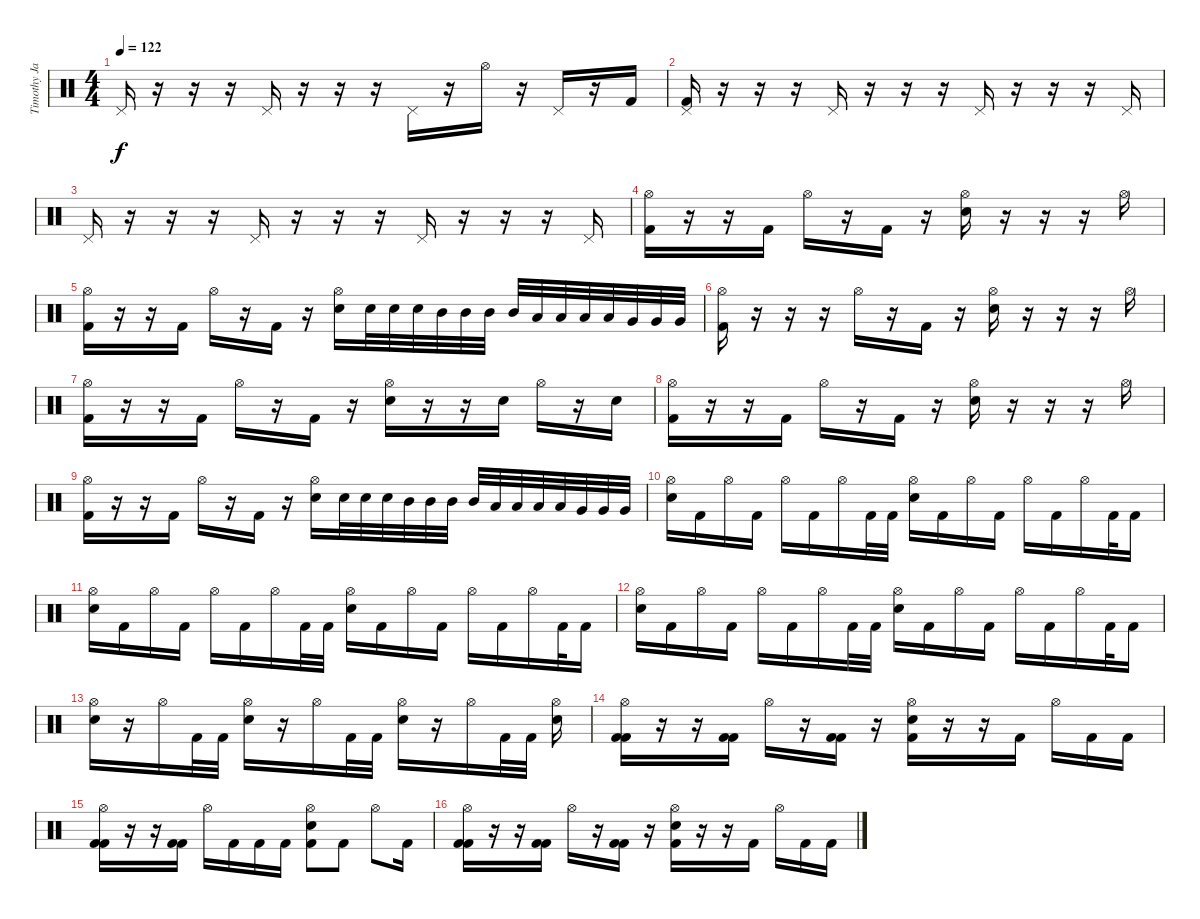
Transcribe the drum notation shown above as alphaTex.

\track ("Timothy Java" "Timothy Ja") {instrument percussion}
\staff {score}
\articulation defaults
\ts (4 4)
\tempo 122
\clef neutral
\ks c "Pedal Hi-Hat (hit)".16{dy f}
r.16 r.16 r.16 "Pedal Hi-Hat (hit)".16 r.16 r.16 r.16 "Pedal Hi-Hat (hit)".16 r.16 "Hi-Hat (open)".16 r.16 "Pedal Hi-Hat (hit)".16 r.16 "Kick (hit) 2".16 |
("Pedal Hi-Hat (hit)" "Kick (hit) 2").16 r.16 r.16 r.16 "Pedal Hi-Hat (hit)".16 r.16 r.16 r.16 "Pedal Hi-Hat (hit)".16 r.16 r.16 r.16 "Pedal Hi-Hat (hit)".16 |
"Pedal Hi-Hat (hit)".16 r.16 r.16 r.16 "Pedal Hi-Hat (hit)".16 r.16 r.16 r.16 "Pedal Hi-Hat (hit)".16 r.16 r.16 r.16 "Pedal Hi-Hat (hit)".16 |
("Hi-Hat (open)" "Kick (hit) 2").16 r.16 r.16 "Kick (hit) 2".16 "Hi-Hat (open)".16 r.16 "Kick (hit) 2".16 r.16 ("Hi-Hat (open)" "Electric Snare (hit)").16 r.16 r.16 r.16 "Hi-Hat (open)".16 |
("Hi-Hat (open)" "Kick (hit) 2").16 r.16 r.16 "Kick (hit) 2".16 "Hi-Hat (open)".16 r.16 "Kick (hit) 2".16 r.16 ("Hi-Hat (open)" "Electric Snare (hit)").16 "Electric Snare (hit)".32 "Electric Snare (hit)".32 "Electric Snare (hit)".32 "Mid Tom (hit)".32 "Mid Tom (hit)".32 "Mid Tom (hit)".32 "Mid Tom (hit)".32 "Low Tom (hit)".32 "Low Tom (hit)".32 "Low Tom (hit)".32 "Low Tom (hit)".32 "Very Low Tom (hit)".32 "Very Low Tom (hit)".32 "Very Low Tom (hit)".32 |
("Hi-Hat (open)" "Kick (hit) 2").16 r.16 r.16 r.16 "Hi-Hat (open)".16 r.16 "Kick (hit) 2".16 r.16 ("Hi-Hat (open)" "Electric Snare (hit)").16 r.16 r.16 r.16 "Hi-Hat (open)".16 |
("Hi-Hat (open)" "Kick (hit) 2").16 r.16 r.16 "Kick (hit) 2".16 "Hi-Hat (open)".16 r.16 "Kick (hit) 2".16 r.16 ("Hi-Hat (open)" "Electric Snare (hit)").16 r.16 r.16 "Electric Snare (hit)".16 "Hi-Hat (open)".16 r.16 "Electric Snare (hit)".16 |
("Hi-Hat (open)" "Kick (hit) 2").16 r.16 r.16 "Kick (hit) 2".16 "Hi-Hat (open)".16 r.16 "Kick (hit) 2".16 r.16 ("Hi-Hat (open)" "Electric Snare (hit)").16 r.16 r.16 r.16 "Hi-Hat (open)".16 |
("Hi-Hat (open)" "Kick (hit) 2").16 r.16 r.16 "Kick (hit) 2".16 "Hi-Hat (open)".16 r.16 "Kick (hit) 2".16 r.16 ("Hi-Hat (open)" "Electric Snare (hit)").16 "Electric Snare (hit)".32 "Electric Snare (hit)".32 "Electric Snare (hit)".32 "Mid Tom (hit)".32 "Mid Tom (hit)".32 "Mid Tom (hit)".32 "Mid Tom (hit)".32 "Low Tom (hit)".32 "Low Tom (hit)".32 "Low Tom (hit)".32 "Low Tom (hit)".32 "Very Low Tom (hit)".32 "Very Low Tom (hit)".32 "Very Low Tom (hit)".32 |
("Hi-Hat (open)" "Electric Snare (hit)").16 "Kick (hit) 2".16 "Hi-Hat (open)".16 "Kick (hit) 2".16 "Hi-Hat (open)".16 "Kick (hit) 2".16 "Hi-Hat (open)".16 "Kick (hit) 2".32 "Kick (hit) 2".32 ("Hi-Hat (open)" "Electric Snare (hit)").16 "Kick (hit) 2".16 "Hi-Hat (open)".16 "Kick (hit) 2".16 "Hi-Hat (open)".16 "Kick (hit) 2".16 "Hi-Hat (open)".16 "Kick (hit) 2".32 "Kick (hit) 2".16 |
("Hi-Hat (open)" "Electric Snare (hit)").16 "Kick (hit) 2".16 "Hi-Hat (open)".16 "Kick (hit) 2".16 "Hi-Hat (open)".16 "Kick (hit) 2".16 "Hi-Hat (open)".16 "Kick (hit) 2".32 "Kick (hit) 2".32 ("Hi-Hat (open)" "Electric Snare (hit)").16 "Kick (hit) 2".16 "Hi-Hat (open)".16 "Kick (hit) 2".16 "Hi-Hat (open)".16 "Kick (hit) 2".16 "Hi-Hat (open)".16 "Kick (hit) 2".32 "Kick (hit) 2".16 |
("Hi-Hat (open)" "Electric Snare (hit)").16 "Kick (hit) 2".16 "Hi-Hat (open)".16 "Kick (hit) 2".16 "Hi-Hat (open)".16 "Kick (hit) 2".16 "Hi-Hat (open)".16 "Kick (hit) 2".32 "Kick (hit) 2".32 ("Hi-Hat (open)" "Electric Snare (hit)").16 "Kick (hit) 2".16 "Hi-Hat (open)".16 "Kick (hit) 2".16 "Hi-Hat (open)".16 "Kick (hit) 2".16 "Hi-Hat (open)".16 "Kick (hit) 2".32 "Kick (hit) 2".16 |
("Hi-Hat (open)" "Electric Snare (hit)").16 r.16 "Hi-Hat (open)".16 "Kick (hit) 2".32 "Kick (hit) 2".32 ("Hi-Hat (open)" "Electric Snare (hit)").16 r.16 "Hi-Hat (open)".16 "Kick (hit) 2".32 "Kick (hit) 2".32 ("Hi-Hat (open)" "Electric Snare (hit)").16 r.16 "Hi-Hat (open)".16 "Kick (hit) 2".32 "Kick (hit) 2".32 ("Hi-Hat (open)" "Electric Snare (hit)").16 |
("Kick (hit) 2" "Kick (hit) 2" "Hi-Hat (open)").16 r.16 r.16 ("Kick (hit) 2" "Kick (hit) 2").16 "Hi-Hat (open)".16 r.16 ("Kick (hit) 2" "Kick (hit) 2").16 r.16 ("Kick (hit) 2" "Electric Snare (hit)" "Hi-Hat (open)").16 r.16 r.16 "Kick (hit) 2".16 "Hi-Hat (open)".16 "Kick (hit) 2".16 "Kick (hit) 2".16 |
("Kick (hit) 2" "Kick (hit) 2" "Hi-Hat (open)").16 r.16 r.16 ("Kick (hit) 2" "Kick (hit) 2").16 "Hi-Hat (open)".16 "Kick (hit) 2".16 "Kick (hit) 2".16 "Kick (hit) 2".16 ("Kick (hit) 2" "Electric Snare (hit)" "Hi-Hat (open)").8 "Kick (hit) 2".8 "Hi-Hat (open)".8 "Kick (hit) 2".16 |
("Kick (hit) 2" "Kick (hit) 2" "Hi-Hat (open)").16 r.16 r.16 ("Kick (hit) 2" "Kick (hit) 2").16 "Hi-Hat (open)".16 r.16 ("Kick (hit) 2" "Kick (hit) 2").16 r.16 ("Kick (hit) 2" "Electric Snare (hit)" "Hi-Hat (open)").16 r.16 r.16 "Kick (hit) 2".16 "Hi-Hat (open)".16 "Kick (hit) 2".16 "Kick (hit) 2".16
